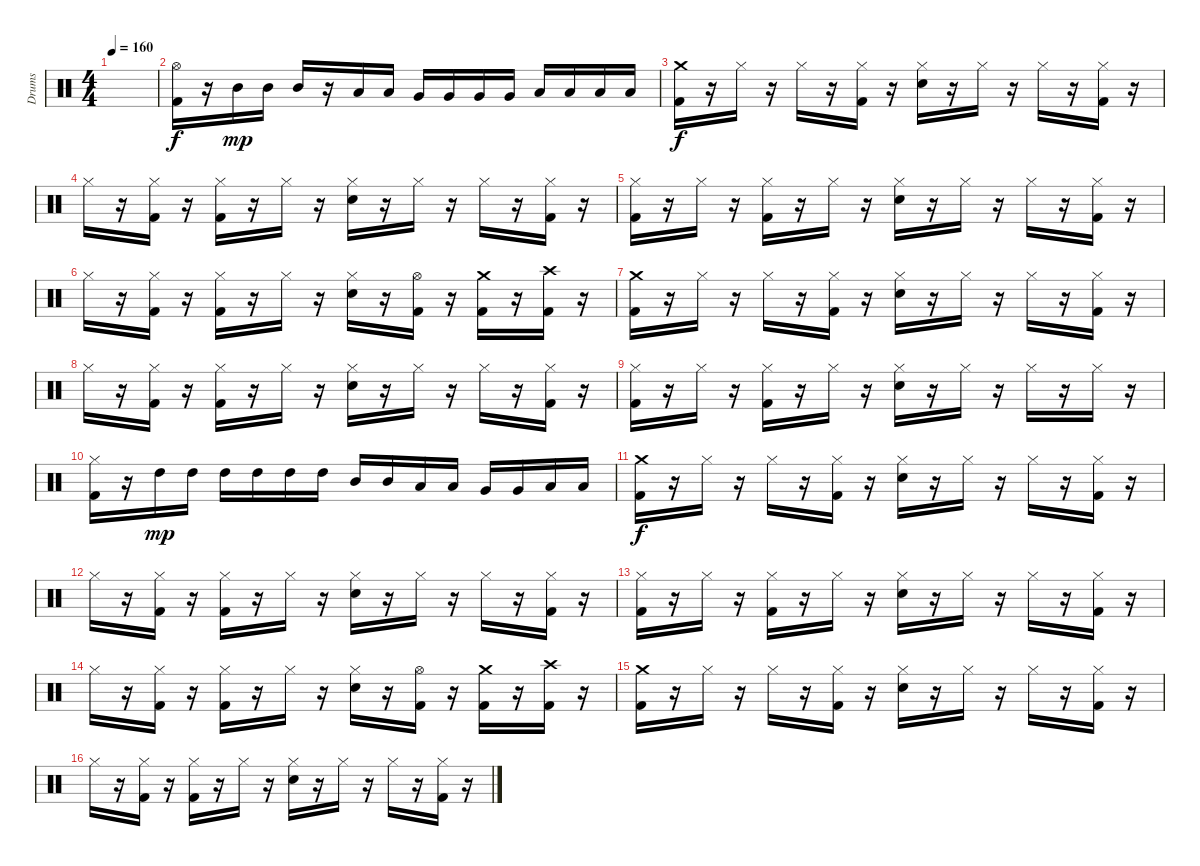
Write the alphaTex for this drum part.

\track ("Drums" "Drums") {instrument percussion}
\staff {score}
\articulation defaults
\ts (4 4)
\tempo 160
\clef neutral
\ks c
|
("Hi-Hat (open)" "Kick (hit) 2").16 r.16 "Mid Tom (hit)".16{dy mp} "Mid Tom (hit)".16 "Mid Tom (hit)".16 r.16 "Low Tom (hit)".16 "Low Tom (hit)".16 "Very Low Tom (hit)".16 "Very Low Tom (hit)".16 "Very Low Tom (hit)".16 "Very Low Tom (hit)".16 "Low Floor Tom (hit)".16 "Low Floor Tom (hit)".16 "Low Floor Tom (hit)".16 "Low Floor Tom (hit)".16 |
("Crash medium (hit)" "Kick (hit) 2").16{dy f} r.16 "Hi-Hat (closed)".16 r.16 "Hi-Hat (closed)".16 r.16 ("Hi-Hat (closed)" "Kick (hit) 2").16 r.16 ("Hi-Hat (closed)" "Snare (hit) 2").16 r.16 "Hi-Hat (closed)".16 r.16 "Hi-Hat (closed)".16 r.16 ("Hi-Hat (closed)" "Kick (hit) 2").16 r.16 |
"Hi-Hat (closed)".16 r.16 ("Hi-Hat (closed)" "Kick (hit) 2").16 r.16 ("Hi-Hat (closed)" "Kick (hit) 2").16 r.16 "Hi-Hat (closed)".16 r.16 ("Hi-Hat (closed)" "Snare (hit) 2").16 r.16 "Hi-Hat (closed)".16 r.16 "Hi-Hat (closed)".16 r.16 ("Hi-Hat (closed)" "Kick (hit) 2").16 r.16 |
("Hi-Hat (closed)" "Kick (hit) 2").16 r.16 "Hi-Hat (closed)".16 r.16 ("Hi-Hat (closed)" "Kick (hit) 2").16 r.16 "Hi-Hat (closed)".16 r.16 ("Hi-Hat (closed)" "Snare (hit) 2").16 r.16 "Hi-Hat (closed)".16 r.16 "Hi-Hat (closed)".16 r.16 ("Hi-Hat (closed)" "Kick (hit) 2").16 r.16 |
"Hi-Hat (closed)".16 r.16 ("Hi-Hat (closed)" "Kick (hit) 2").16 r.16 ("Hi-Hat (closed)" "Kick (hit) 2").16 r.16 "Hi-Hat (closed)".16 r.16 ("Hi-Hat (closed)" "Snare (hit) 2").16 r.16 ("Hi-Hat (open)" "Kick (hit) 2").16 r.16 ("Crash medium (hit)" "Kick (hit) 2").16 r.16 ("Crash high (hit)" "Kick (hit) 2").16 r.16 |
("Crash medium (hit)" "Kick (hit) 2").16 r.16 "Hi-Hat (closed)".16 r.16 "Hi-Hat (closed)".16 r.16 ("Hi-Hat (closed)" "Kick (hit) 2").16 r.16 ("Hi-Hat (closed)" "Snare (hit) 2").16 r.16 "Hi-Hat (closed)".16 r.16 "Hi-Hat (closed)".16 r.16 ("Hi-Hat (closed)" "Kick (hit) 2").16 r.16 |
"Hi-Hat (closed)".16 r.16 ("Hi-Hat (closed)" "Kick (hit) 2").16 r.16 ("Hi-Hat (closed)" "Kick (hit) 2").16 r.16 "Hi-Hat (closed)".16 r.16 ("Hi-Hat (closed)" "Snare (hit) 2").16 r.16 "Hi-Hat (closed)".16 r.16 "Hi-Hat (closed)".16 r.16 ("Hi-Hat (closed)" "Kick (hit) 2").16 r.16 |
("Hi-Hat (closed)" "Kick (hit) 2").16 r.16 "Hi-Hat (closed)".16 r.16 ("Hi-Hat (closed)" "Kick (hit) 2").16 r.16 "Hi-Hat (closed)".16 r.16 ("Hi-Hat (closed)" "Snare (hit) 2").16 r.16 "Hi-Hat (closed)".16 r.16 "Hi-Hat (closed)".16 r.16 "Hi-Hat (closed)".16 r.16 |
("Hi-Hat (closed)" "Kick (hit) 2").16 r.16 "High Tom (hit)".16{dy mp} "High Tom (hit)".16 "High Tom (hit)".16 "High Tom (hit)".16 "High Tom (hit)".16 "High Tom (hit)".16 "Mid Tom (hit)".16 "Mid Tom (hit)".16 "Low Tom (hit)".16 "Low Tom (hit)".16 "Very Low Tom (hit)".16 "Very Low Tom (hit)".16 "Low Floor Tom (hit)".16 "Low Floor Tom (hit)".16 |
("Crash medium (hit)" "Kick (hit) 2").16{dy f} r.16 "Hi-Hat (closed)".16 r.16 "Hi-Hat (closed)".16 r.16 ("Hi-Hat (closed)" "Kick (hit) 2").16 r.16 ("Hi-Hat (closed)" "Snare (hit) 2").16 r.16 "Hi-Hat (closed)".16 r.16 "Hi-Hat (closed)".16 r.16 ("Hi-Hat (closed)" "Kick (hit) 2").16 r.16 |
"Hi-Hat (closed)".16 r.16 ("Hi-Hat (closed)" "Kick (hit) 2").16 r.16 ("Hi-Hat (closed)" "Kick (hit) 2").16 r.16 "Hi-Hat (closed)".16 r.16 ("Hi-Hat (closed)" "Snare (hit) 2").16 r.16 "Hi-Hat (closed)".16 r.16 "Hi-Hat (closed)".16 r.16 ("Hi-Hat (closed)" "Kick (hit) 2").16 r.16 |
("Hi-Hat (closed)" "Kick (hit) 2").16 r.16 "Hi-Hat (closed)".16 r.16 ("Hi-Hat (closed)" "Kick (hit) 2").16 r.16 "Hi-Hat (closed)".16 r.16 ("Hi-Hat (closed)" "Snare (hit) 2").16 r.16 "Hi-Hat (closed)".16 r.16 "Hi-Hat (closed)".16 r.16 ("Hi-Hat (closed)" "Kick (hit) 2").16 r.16 |
"Hi-Hat (closed)".16 r.16 ("Hi-Hat (closed)" "Kick (hit) 2").16 r.16 ("Hi-Hat (closed)" "Kick (hit) 2").16 r.16 "Hi-Hat (closed)".16 r.16 ("Hi-Hat (closed)" "Snare (hit) 2").16 r.16 ("Hi-Hat (open)" "Kick (hit) 2").16 r.16 ("Crash medium (hit)" "Kick (hit) 2").16 r.16 ("Crash high (hit)" "Kick (hit) 2").16 r.16 |
("Crash medium (hit)" "Kick (hit) 2").16 r.16 "Hi-Hat (closed)".16 r.16 "Hi-Hat (closed)".16 r.16 ("Hi-Hat (closed)" "Kick (hit) 2").16 r.16 ("Hi-Hat (closed)" "Snare (hit) 2").16 r.16 "Hi-Hat (closed)".16 r.16 "Hi-Hat (closed)".16 r.16 ("Hi-Hat (closed)" "Kick (hit) 2").16 r.16 |
"Hi-Hat (closed)".16 r.16 ("Hi-Hat (closed)" "Kick (hit) 2").16 r.16 ("Hi-Hat (closed)" "Kick (hit) 2").16 r.16 "Hi-Hat (closed)".16 r.16 ("Hi-Hat (closed)" "Snare (hit) 2").16 r.16 "Hi-Hat (closed)".16 r.16 "Hi-Hat (closed)".16 r.16 ("Hi-Hat (closed)" "Kick (hit) 2").16 r.16
